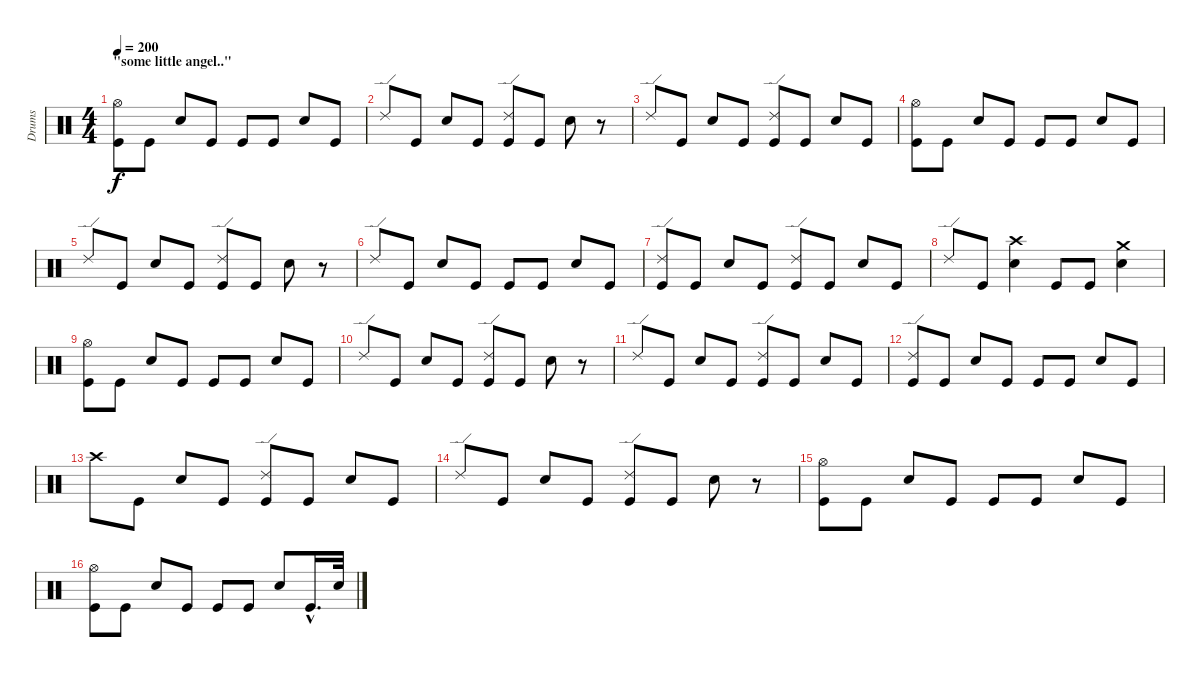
\track ("Drums" "Drums") {instrument percussion}
\staff {score}
\articulation defaults
\ts (4 4)
\section ("" "\"some little angel..\"")
\tempo 200
\clef neutral
\ks c
("Hi-Hat (open)" "Kick (hit)").8{dy f} "Kick (hit)".8 "Snare (hit) 2".8 "Kick (hit)".8 "Kick (hit)".8 "Kick (hit)".8 "Snare (hit) 2".8 "Kick (hit)".8 |
"Ride (edge) 2".8 "Kick (hit)".8 "Snare (hit) 2".8 "Kick (hit)".8 ("Ride (edge) 2" "Kick (hit)").8 "Kick (hit)".8 "Snare (hit) 2".8 r.8 |
"Ride (edge) 2".8 "Kick (hit)".8 "Snare (hit) 2".8 "Kick (hit)".8 ("Ride (edge) 2" "Kick (hit)").8 "Kick (hit)".8 "Snare (hit) 2".8 "Kick (hit)".8 |
("Hi-Hat (open)" "Kick (hit)").8 "Kick (hit)".8 "Snare (hit) 2".8 "Kick (hit)".8 "Kick (hit)".8 "Kick (hit)".8 "Snare (hit) 2".8 "Kick (hit)".8 |
"Ride (edge) 2".8 "Kick (hit)".8 "Snare (hit) 2".8 "Kick (hit)".8 ("Ride (edge) 2" "Kick (hit)").8 "Kick (hit)".8 "Snare (hit) 2".8 r.8 |
"Ride (edge) 2".8 "Kick (hit)".8 "Snare (hit) 2".8 "Kick (hit)".8 "Kick (hit)".8 "Kick (hit)".8 "Snare (hit) 2".8 "Kick (hit)".8 |
("Ride (edge) 2" "Kick (hit)").8 "Kick (hit)".8 "Snare (hit) 2".8 "Kick (hit)".8 ("Ride (edge) 2" "Kick (hit)").8 "Kick (hit)".8 "Snare (hit) 2".8 "Kick (hit)".8 |
"Ride (edge) 2".8 "Kick (hit)".8 ("Crash high (hit)" "Snare (hit) 2").4 "Kick (hit)".8 "Kick (hit)".8 ("Crash medium (hit)" "Snare (hit) 2").4 |
("Hi-Hat (open)" "Kick (hit)").8 "Kick (hit)".8 "Snare (hit) 2".8 "Kick (hit)".8 "Kick (hit)".8 "Kick (hit)".8 "Snare (hit) 2".8 "Kick (hit)".8 |
"Ride (edge) 2".8 "Kick (hit)".8 "Snare (hit) 2".8 "Kick (hit)".8 ("Ride (edge) 2" "Kick (hit)").8 "Kick (hit)".8 "Snare (hit) 2".8 r.8 |
"Ride (edge) 2".8 "Kick (hit)".8 "Snare (hit) 2".8 "Kick (hit)".8 ("Ride (edge) 2" "Kick (hit)").8 "Kick (hit)".8 "Snare (hit) 2".8 "Kick (hit)".8 |
("Ride (edge) 2" "Kick (hit)").8 "Kick (hit)".8 "Snare (hit) 2".8 "Kick (hit)".8 "Kick (hit)".8 "Kick (hit)".8 "Snare (hit) 2".8 "Kick (hit)".8 |
"Crash high (hit)".8 "Kick (hit)".8 "Snare (hit) 2".8 "Kick (hit)".8 ("Ride (edge) 2" "Kick (hit)").8 "Kick (hit)".8 "Snare (hit) 2".8 "Kick (hit)".8 |
"Ride (edge) 2".8 "Kick (hit)".8 "Snare (hit) 2".8 "Kick (hit)".8 ("Ride (edge) 2" "Kick (hit)").8 "Kick (hit)".8 "Snare (hit) 2".8 r.8 |
("Hi-Hat (open)" "Kick (hit)").8 "Kick (hit)".8 "Snare (hit) 2".8 "Kick (hit)".8 "Kick (hit)".8 "Kick (hit)".8 "Snare (hit) 2".8 "Kick (hit)".8 |
("Hi-Hat (open)" "Kick (hit)").8 "Kick (hit)".8 "Snare (hit) 2".8 "Kick (hit)".8 "Kick (hit)".8 "Kick (hit)".8 "Snare (hit) 2".8 "Kick (hit)"{hac}.16{d} "Snare (hit) 2".32
